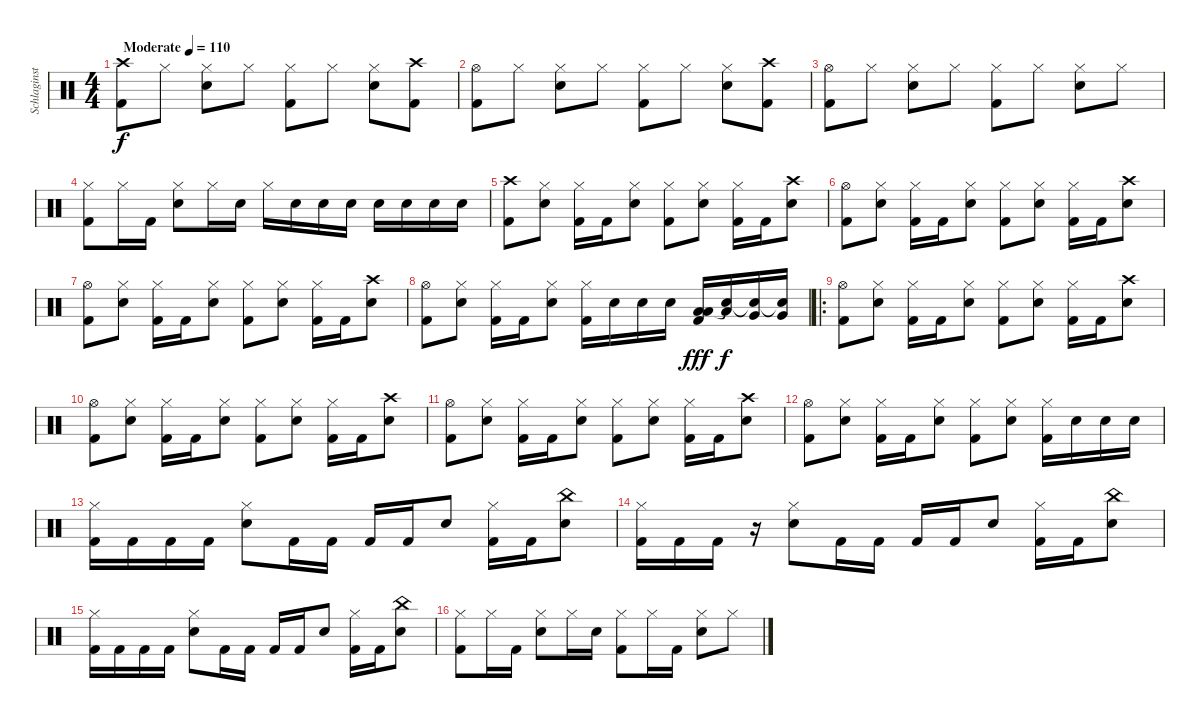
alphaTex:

\track ("Schlaginstrumente - Auswahl" "Schlaginst") {instrument percussion}
\staff {score}
\articulation defaults
\ts (4 4)
\tempo (110 "Moderate")
\clef neutral
\ks c
("Crash high (hit)" "Kick (hit) 2").8{dy f} "Hi-Hat (closed)".8 ("Hi-Hat (closed)" "Snare (hit) 2").8 "Hi-Hat (closed)".8 ("Hi-Hat (closed)" "Kick (hit) 2").8 "Hi-Hat (closed)".8 ("Hi-Hat (closed)" "Snare (hit) 2").8 ("Crash high (hit)" "Kick (hit) 2").8 |
("Hi-Hat (open)" "Kick (hit) 2").8 "Hi-Hat (closed)".8 ("Hi-Hat (closed)" "Snare (hit) 2").8 "Hi-Hat (closed)".8 ("Hi-Hat (closed)" "Kick (hit) 2").8 "Hi-Hat (closed)".8 ("Hi-Hat (closed)" "Snare (hit) 2").8 ("Crash high (hit)" "Kick (hit) 2").8 |
("Hi-Hat (open)" "Kick (hit) 2").8 "Hi-Hat (closed)".8 ("Hi-Hat (closed)" "Snare (hit) 2").8 "Hi-Hat (closed)".8 ("Hi-Hat (closed)" "Kick (hit) 2").8 "Hi-Hat (closed)".8 ("Hi-Hat (closed)" "Snare (hit) 2").8 "Hi-Hat (closed)".8 |
("Hi-Hat (closed)" "Kick (hit) 2").8 "Hi-Hat (closed)".16 "Kick (hit) 2".16 ("Hi-Hat (closed)" "Snare (hit) 2").8 "Hi-Hat (closed)".16 "Snare (hit) 2".16 "Hi-Hat (closed)".16 "Snare (hit) 2".16 "Snare (hit) 2".16 "Snare (hit) 2".16 "Snare (hit) 2".16 "Snare (hit) 2".16 "Snare (hit) 2".16 "Snare (hit) 2".16 |
("Crash high (hit)" "Kick (hit) 2").8 ("Hi-Hat (closed)" "Snare (hit) 2").8 ("Hi-Hat (closed)" "Kick (hit) 2").16 "Kick (hit) 2".16 ("Hi-Hat (closed)" "Snare (hit) 2").8 ("Hi-Hat (closed)" "Kick (hit) 2").8 ("Hi-Hat (closed)" "Snare (hit) 2").8 ("Hi-Hat (closed)" "Kick (hit) 2").16 "Kick (hit) 2".16 ("Crash high (hit)" "Snare (hit) 2").8 |
("Hi-Hat (open)" "Kick (hit) 2").8 ("Hi-Hat (closed)" "Snare (hit) 2").8 ("Hi-Hat (closed)" "Kick (hit) 2").16 "Kick (hit) 2".16 ("Hi-Hat (closed)" "Snare (hit) 2").8 ("Hi-Hat (closed)" "Kick (hit) 2").8 ("Hi-Hat (closed)" "Snare (hit) 2").8 ("Hi-Hat (closed)" "Kick (hit) 2").16 "Kick (hit) 2".16 ("Crash high (hit)" "Snare (hit) 2").8 |
("Hi-Hat (open)" "Kick (hit) 2").8 ("Hi-Hat (closed)" "Snare (hit) 2").8 ("Hi-Hat (closed)" "Kick (hit) 2").16 "Kick (hit) 2".16 ("Hi-Hat (closed)" "Snare (hit) 2").8 ("Hi-Hat (closed)" "Kick (hit) 2").8 ("Hi-Hat (closed)" "Snare (hit) 2").8 ("Hi-Hat (closed)" "Kick (hit) 2").16 "Kick (hit) 2".16 ("Crash high (hit)" "Snare (hit) 2").8 |
("Hi-Hat (open)" "Kick (hit) 2").8 ("Hi-Hat (closed)" "Snare (hit) 2").8 ("Hi-Hat (closed)" "Kick (hit) 2").16 "Kick (hit) 2".16 ("Hi-Hat (closed)" "Snare (hit) 2").8 ("Hi-Hat (closed)" "Kick (hit) 2").16 "Snare (hit) 2".16 "Snare (hit) 2".16 "Snare (hit) 2".16 ("Low Tom (hit)" "Low Floor Tom (hit)" "Kick (hit) 2").16{dy fff} ("Low Tom (hit)" "Snare (hit)"{t}).16{dy f} ("Very Low Tom (hit)" "Snare (hit)"{t}).16 ("Very Low Tom (hit)" "Snare (hit)"{t}).16 |
\ro
("Hi-Hat (open)" "Kick (hit) 2").8 ("Hi-Hat (closed)" "Snare (hit) 2").8 ("Hi-Hat (closed)" "Kick (hit) 2").16 "Kick (hit) 2".16 ("Hi-Hat (closed)" "Snare (hit) 2").8 ("Hi-Hat (closed)" "Kick (hit) 2").8 ("Hi-Hat (closed)" "Snare (hit) 2").8 ("Hi-Hat (closed)" "Kick (hit) 2").16 "Kick (hit) 2".16 ("Crash high (hit)" "Snare (hit) 2").8 |
("Hi-Hat (open)" "Kick (hit) 2").8 ("Hi-Hat (closed)" "Snare (hit) 2").8 ("Hi-Hat (closed)" "Kick (hit) 2").16 "Kick (hit) 2".16 ("Hi-Hat (closed)" "Snare (hit) 2").8 ("Hi-Hat (closed)" "Kick (hit) 2").8 ("Hi-Hat (closed)" "Snare (hit) 2").8 ("Hi-Hat (closed)" "Kick (hit) 2").16 "Kick (hit) 2".16 ("Crash high (hit)" "Snare (hit) 2").8 |
("Hi-Hat (open)" "Kick (hit) 2").8 ("Hi-Hat (closed)" "Snare (hit) 2").8 ("Hi-Hat (closed)" "Kick (hit) 2").16 "Kick (hit) 2".16 ("Hi-Hat (closed)" "Snare (hit) 2").8 ("Hi-Hat (closed)" "Kick (hit) 2").8 ("Hi-Hat (closed)" "Snare (hit) 2").8 ("Hi-Hat (closed)" "Kick (hit) 2").16 "Kick (hit) 2".16 ("Crash high (hit)" "Snare (hit) 2").8 |
("Hi-Hat (open)" "Kick (hit) 2").8 ("Hi-Hat (closed)" "Snare (hit) 2").8 ("Hi-Hat (closed)" "Kick (hit) 2").16 "Kick (hit) 2".16 ("Hi-Hat (closed)" "Snare (hit) 2").8 ("Hi-Hat (closed)" "Kick (hit) 2").8 ("Hi-Hat (closed)" "Snare (hit) 2").8 ("Hi-Hat (closed)" "Kick (hit) 2").16 "Snare (hit) 2".16 "Snare (hit) 2".16 "Snare (hit) 2".16 |
("Hi-Hat (closed)" "Kick (hit) 2").16 "Kick (hit) 2".16 "Kick (hit) 2".16 "Kick (hit) 2".16 ("Hi-Hat (closed)" "Snare (hit) 2").8 "Kick (hit) 2".16 "Kick (hit) 2".16 "Kick (hit) 2".16 "Kick (hit) 2".16 "Snare (hit) 2".8 ("Hi-Hat (closed)" "Kick (hit) 2").16 "Kick (hit) 2".16 ("China (hit)" "Snare (hit) 2").8 |
("Hi-Hat (closed)" "Kick (hit) 2").16 "Kick (hit) 2".16 "Kick (hit) 2".16 r.16 ("Hi-Hat (closed)" "Snare (hit) 2").8 "Kick (hit) 2".16 "Kick (hit) 2".16 "Kick (hit) 2".16 "Kick (hit) 2".16 "Snare (hit) 2".8 ("Hi-Hat (closed)" "Kick (hit) 2").16 "Kick (hit) 2".16 ("China (hit)" "Snare (hit) 2").8 |
("Hi-Hat (closed)" "Kick (hit) 2").16 "Kick (hit) 2".16 "Kick (hit) 2".16 "Kick (hit) 2".16 ("Hi-Hat (closed)" "Snare (hit) 2").8 "Kick (hit) 2".16 "Kick (hit) 2".16 "Kick (hit) 2".16 "Kick (hit) 2".16 "Snare (hit) 2".8 ("Hi-Hat (closed)" "Kick (hit) 2").16 "Kick (hit) 2".16 ("China (hit)" "Snare (hit) 2").8 |
("Hi-Hat (closed)" "Kick (hit) 2").8 "Hi-Hat (closed)".16 "Kick (hit) 2".16 ("Hi-Hat (closed)" "Snare (hit) 2").8 "Hi-Hat (closed)".16 "Snare (hit) 2".16 ("Hi-Hat (closed)" "Kick (hit) 2").8 "Hi-Hat (closed)".16 "Kick (hit) 2".16 ("Hi-Hat (closed)" "Snare (hit) 2").8 "Hi-Hat (closed)".8
